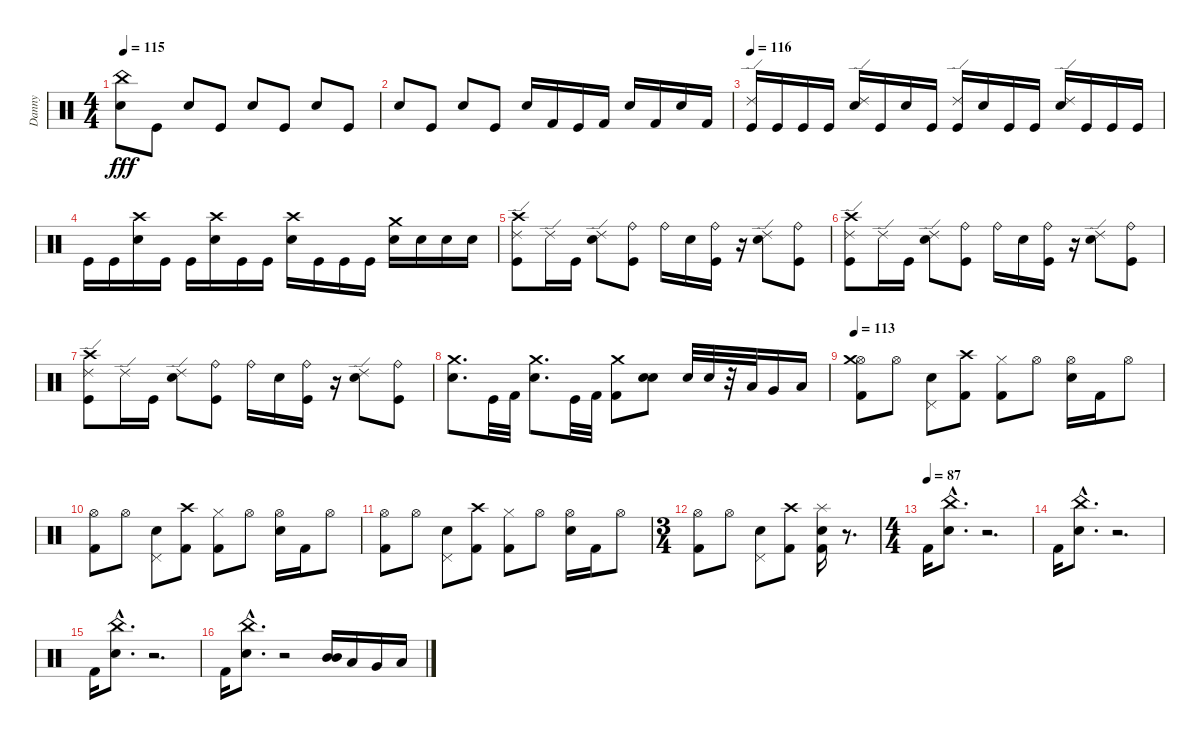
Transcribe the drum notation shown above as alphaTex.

\track ("Danny" "Danny") {instrument percussion}
\staff {score}
\articulation defaults
\ts (4 4)
\tempo 115
\clef neutral
\ks c
("Snare (hit) 2" "China (hit)").8{dy fff} "Kick (hit)".8 "Snare (hit) 2".8 "Kick (hit)".8 "Snare (hit) 2".8 "Kick (hit)".8 "Snare (hit) 2".8 "Kick (hit)".8 |
"Snare (hit) 2".8 "Kick (hit)".8 "Snare (hit) 2".8 "Kick (hit)".8 "Snare (hit) 2".16 "Kick (hit) 2".16 "Kick (hit)".16 "Kick (hit) 2".16 "Snare (hit) 2".16 "Kick (hit) 2".16 "Snare (hit) 2".16 "Kick (hit) 2".16 |
\tempo 116
("Ride (edge) 2" "Kick (hit)").16 "Kick (hit)".16 "Kick (hit)".16 "Kick (hit)".16 ("Ride (edge) 2" "Snare (hit) 2").16 "Kick (hit)".16 "Snare (hit) 2".16 "Kick (hit)".16 ("Ride (edge) 2" "Kick (hit)").16 "Snare (hit) 2".16 "Kick (hit)".16 "Kick (hit)".16 ("Ride (edge) 2" "Snare (hit) 2").16 "Kick (hit)".16 "Kick (hit)".16 "Kick (hit)".16 |
"Kick (hit)".16 "Kick (hit)".16 ("Crash high (hit)" "Snare (hit) 2").16 "Kick (hit)".16 "Kick (hit)".16 ("Crash high (hit)" "Snare (hit) 2").16 "Kick (hit)".16 "Kick (hit)".16 ("Crash high (hit)" "Snare (hit) 2").16 "Kick (hit)".16 "Kick (hit)".16 "Kick (hit)".16 ("Crash medium (hit)" "Snare (hit) 2").16 "Snare (hit) 2".16 "Snare (hit) 2".16 "Snare (hit) 2".16 |
("Crash high (hit)" "Ride (edge) 2" "Kick (hit)").8{volume 16 balance 8} "Ride (edge) 2".16 "Kick (hit)".16 ("Ride (edge) 2" "Snare (hit) 2").8 ("Ride (bell)" "Kick (hit)").8 "Ride (bell)".16 "Snare (hit) 2".16 ("Ride (bell)" "Kick (hit)").16 r.16 ("Ride (edge) 2" "Snare (hit) 2").8 ("Ride (bell)" "Kick (hit)").8 |
("Crash high (hit)" "Ride (edge) 2" "Kick (hit)").8 "Ride (edge) 2".16 "Kick (hit)".16 ("Ride (edge) 2" "Snare (hit) 2").8 ("Ride (bell)" "Kick (hit)").8 "Ride (bell)".16 "Snare (hit) 2".16 ("Ride (bell)" "Kick (hit)").16 r.16 ("Ride (edge) 2" "Snare (hit) 2").8 ("Ride (bell)" "Kick (hit)").8 |
("Crash high (hit)" "Ride (edge) 2" "Kick (hit)").8 "Ride (edge) 2".16 "Kick (hit)".16 ("Ride (edge) 2" "Snare (hit) 2").8 ("Ride (bell)" "Kick (hit)").8 "Ride (bell)".16 "Snare (hit) 2".16 ("Ride (bell)" "Kick (hit)").16 r.16 ("Ride (edge) 2" "Snare (hit) 2").8 ("Ride (bell)" "Kick (hit)").8 |
("Crash medium (hit)" "Snare (hit) 2").8{d} "Kick (hit)".32 "Kick (hit) 2".32 ("Crash medium (hit)" "Snare (hit) 2").8{d} "Kick (hit)".32 "Kick (hit) 2".32 ("Crash medium (hit)" "Kick (hit) 2").8 ("Snare (hit) 2" "Snare (hit) 2").8 "Snare (hit) 2".32 "Snare (hit) 2".32 r.32 "Low Tom (hit)".32 "Very Low Tom (hit)".16 "Low Floor Tom (hit)".16 |
\tempo 113
("Kick (hit) 2" "Hi-Hat (open)" "Crash medium (hit)").8 "Hi-Hat (open)".8 ("Snare (hit) 2" "Pedal Hi-Hat (hit)").8 ("Kick (hit) 2" "Crash high (hit)").8 ("Kick (hit) 2" "Hi-Hat (closed)").8 "Hi-Hat (open)".8 ("Snare (hit) 2" "Hi-Hat (open)").16 "Kick (hit) 2".16 "Hi-Hat (open)".8 |
("Kick (hit) 2" "Hi-Hat (open)").8 "Hi-Hat (open)".8 ("Snare (hit) 2" "Pedal Hi-Hat (hit)").8 ("Kick (hit) 2" "Crash high (hit)").8 ("Kick (hit) 2" "Hi-Hat (closed)").8 "Hi-Hat (open)".8 ("Snare (hit) 2" "Hi-Hat (open)").16 "Kick (hit) 2".16 "Hi-Hat (open)".8 |
("Kick (hit) 2" "Hi-Hat (open)").8 "Hi-Hat (open)".8 ("Snare (hit) 2" "Pedal Hi-Hat (hit)").8 ("Kick (hit) 2" "Crash high (hit)").8 ("Kick (hit) 2" "Hi-Hat (closed)").8 "Hi-Hat (open)".8 ("Snare (hit) 2" "Hi-Hat (open)").16 "Kick (hit) 2".16 "Hi-Hat (open)".8 |
\ts (3 4)
("Kick (hit) 2" "Hi-Hat (open)").8 "Hi-Hat (open)".8 ("Snare (hit) 2" "Pedal Hi-Hat (hit)").8 ("Kick (hit) 2" "Crash high (hit)").8 ("Splash (hit)" "Snare (hit) 2" "Kick (hit) 2").16 r.8{d} |
\ts (4 4)
\tempo (87)
"Kick (hit) 2".16 ("China (hit)"{hac} "Snare (hit) 2").8{d} r.2{d} |
"Kick (hit) 2".16 ("China (hit)"{hac} "Snare (hit) 2").8{d} r.2{d} |
"Kick (hit) 2".16 ("China (hit)"{hac} "Snare (hit) 2").8{d} r.2{d} |
"Kick (hit) 2".16 ("China (hit)"{hac} "Snare (hit) 2").8{d} r.2 ("Mid Tom (hit)" "Mid Tom (hit)").16 "Low Tom (hit)".16 "Very Low Tom (hit)".16 "Low Floor Tom (hit)".16
